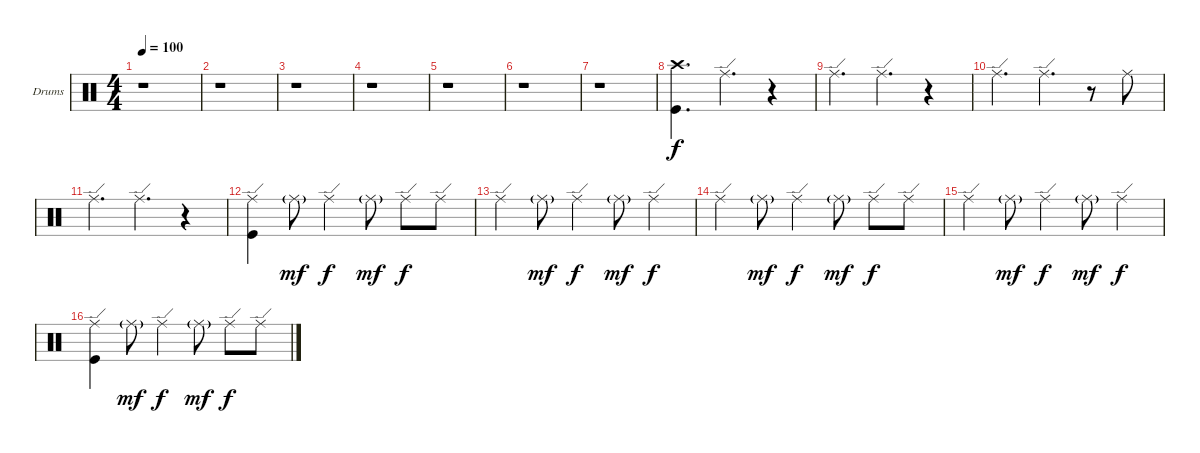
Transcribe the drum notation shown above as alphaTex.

\bracketExtendMode groupsimilarinstruments
\firstSystemTrackNameOrientation horizontal
\otherSystemsTrackNameOrientation horizontal
\track ("Drumkit (Christoph)" "Drums") {instrument percussion}
\staff {score}
\articulation defaults
\ts (4 4)
\tempo 100
\clef neutral
\ks c
r.1{dy f} |
r.1 |
r.1 |
r.1 |
r.1 |
r.1 |
r.1 |
("Crash high (hit)" "Kick (hit)").4{d} "Ride (edge)".4{d} r.4 |
"Ride (edge)".4{d} "Ride (edge)".4{d} r.4 |
"Ride (edge)".4{d} "Ride (edge)".4{d} r.8 "Ride (middle)".8 |
"Ride (edge)".4{d} "Ride (edge)".4{d} r.4 |
("Ride (edge)" "Kick (hit)").4 "Ride (middle)"{g}.8{dy mf} "Ride (edge)".4{dy f} "Ride (middle)"{g}.8{dy mf} "Ride (edge)".8{dy f} "Ride (edge)".8 |
"Ride (edge)".4 "Ride (middle)"{g}.8{dy mf} "Ride (edge)".4{dy f} "Ride (middle)"{g}.8{dy mf} "Ride (edge)".4{dy f} |
"Ride (edge)".4 "Ride (middle)"{g}.8{dy mf} "Ride (edge)".4{dy f} "Ride (middle)"{g}.8{dy mf} "Ride (edge)".8{dy f} "Ride (edge)".8 |
"Ride (edge)".4 "Ride (middle)"{g}.8{dy mf} "Ride (edge)".4{dy f} "Ride (middle)"{g}.8{dy mf} "Ride (edge)".4{dy f} |
("Ride (edge)" "Kick (hit)").4 "Ride (middle)"{g}.8{dy mf} "Ride (edge)".4{dy f} "Ride (middle)"{g}.8{dy mf} "Ride (edge)".8{dy f} "Ride (edge)".8
